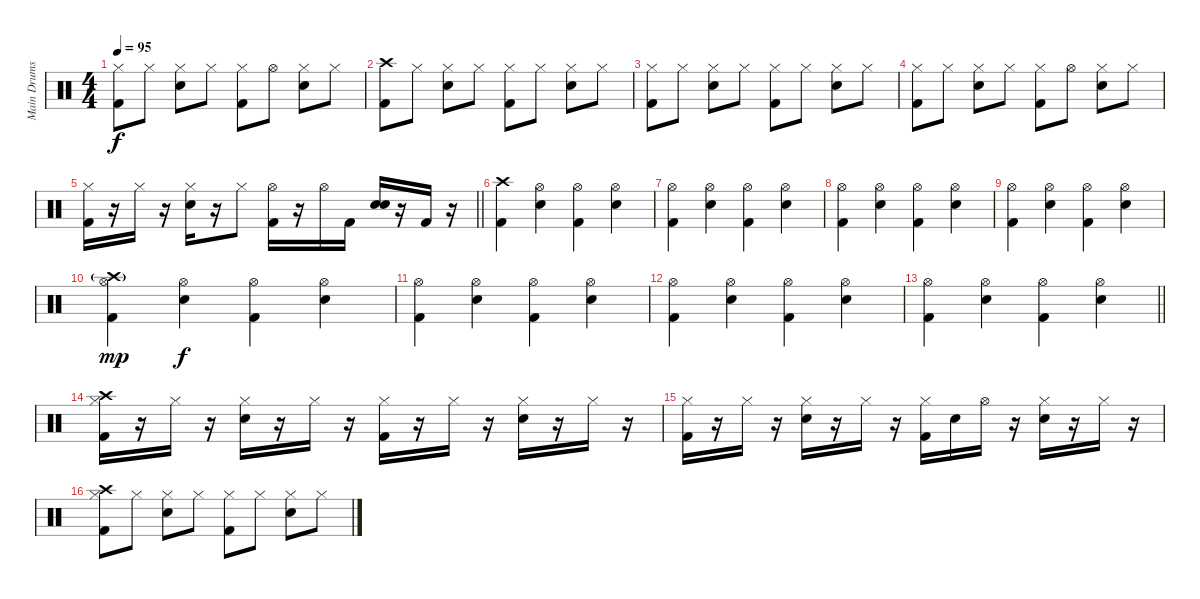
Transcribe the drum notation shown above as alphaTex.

\track ("Main Drums" "Main Drums") {instrument percussion}
\staff {score}
\articulation defaults
\ts (4 4)
\tempo 95
\clef neutral
\ks c
("Hi-Hat (closed)" "Kick (hit) 2").8{dy f} "Hi-Hat (closed)".8 ("Hi-Hat (closed)" "Electric Snare (hit)").8 "Hi-Hat (closed)".8 ("Hi-Hat (closed)" "Kick (hit) 2").8 "Hi-Hat (open)".8 ("Hi-Hat (closed)" "Electric Snare (hit)").8 "Hi-Hat (closed)".8 |
("Crash high (hit)" "Kick (hit) 2").8 "Hi-Hat (closed)".8 ("Hi-Hat (closed)" "Electric Snare (hit)").8 "Hi-Hat (closed)".8 ("Hi-Hat (closed)" "Kick (hit) 2").8 "Hi-Hat (closed)".8 ("Hi-Hat (closed)" "Electric Snare (hit)").8 "Hi-Hat (closed)".8 |
("Hi-Hat (closed)" "Kick (hit) 2").8 "Hi-Hat (closed)".8 ("Hi-Hat (closed)" "Electric Snare (hit)").8 "Hi-Hat (closed)".8 ("Hi-Hat (closed)" "Kick (hit) 2").8 "Hi-Hat (closed)".8 ("Hi-Hat (closed)" "Electric Snare (hit)").8 "Hi-Hat (closed)".8 |
("Hi-Hat (closed)" "Kick (hit) 2").8 "Hi-Hat (closed)".8 ("Hi-Hat (closed)" "Electric Snare (hit)").8 "Hi-Hat (closed)".8 ("Hi-Hat (closed)" "Kick (hit) 2").8 "Hi-Hat (open)".8 ("Hi-Hat (closed)" "Electric Snare (hit)").8 "Hi-Hat (closed)".8 |
\barLineRight lightlight
("Hi-Hat (closed)" "Kick (hit) 2").16 r.16 "Hi-Hat (closed)".16 r.16 ("Hi-Hat (closed)" "Electric Snare (hit)").16 r.16 "Hi-Hat (closed)".8 ("Hi-Hat (open)" "Kick (hit) 2").16 r.16 "Hi-Hat (open)".16 "Kick (hit) 2".16 ("Electric Snare (hit)" "Electric Snare (hit)").16{bu 120} r.16 "Kick (hit) 2".16 r.16 |
("Crash high (hit)" "Kick (hit) 2").4 ("Hi-Hat (open)" "Electric Snare (hit)").4 ("Hi-Hat (open)" "Kick (hit) 2").4 ("Hi-Hat (open)" "Electric Snare (hit)").4 |
("Hi-Hat (open)" "Kick (hit) 2").4 ("Hi-Hat (open)" "Electric Snare (hit)").4 ("Hi-Hat (open)" "Kick (hit) 2").4 ("Hi-Hat (open)" "Electric Snare (hit)").4 |
("Hi-Hat (open)" "Kick (hit) 2").4 ("Hi-Hat (open)" "Electric Snare (hit)").4 ("Hi-Hat (open)" "Kick (hit) 2").4 ("Hi-Hat (open)" "Electric Snare (hit)").4 |
("Hi-Hat (open)" "Kick (hit) 2").4 ("Hi-Hat (open)" "Electric Snare (hit)").4 ("Hi-Hat (open)" "Kick (hit) 2").4 ("Hi-Hat (open)" "Electric Snare (hit)").4 |
("Crash high (hit)"{g} "Hi-Hat (open)" "Kick (hit) 2").4{dy mp} ("Hi-Hat (open)" "Electric Snare (hit)").4{dy f} ("Hi-Hat (open)" "Kick (hit) 2").4 ("Hi-Hat (open)" "Electric Snare (hit)").4 |
("Hi-Hat (open)" "Kick (hit) 2").4 ("Hi-Hat (open)" "Electric Snare (hit)").4 ("Hi-Hat (open)" "Kick (hit) 2").4 ("Hi-Hat (open)" "Electric Snare (hit)").4 |
("Hi-Hat (open)" "Kick (hit) 2").4 ("Hi-Hat (open)" "Electric Snare (hit)").4 ("Hi-Hat (open)" "Kick (hit) 2").4 ("Hi-Hat (open)" "Electric Snare (hit)").4 |
\barLineRight lightlight
("Hi-Hat (open)" "Kick (hit) 2").4 ("Hi-Hat (open)" "Electric Snare (hit)").4 ("Hi-Hat (open)" "Kick (hit) 2").4 ("Hi-Hat (open)" "Electric Snare (hit)").4 |
("Crash high (hit)" "Hi-Hat (closed)" "Kick (hit) 2").16 r.16 "Hi-Hat (closed)".16 r.16 ("Hi-Hat (closed)" "Electric Snare (hit)").16 r.16 "Hi-Hat (closed)".16 r.16 ("Hi-Hat (closed)" "Kick (hit) 2").16 r.16 "Hi-Hat (closed)".16 r.16 ("Hi-Hat (closed)" "Electric Snare (hit)").16 r.16 "Hi-Hat (closed)".16 r.16 |
("Hi-Hat (closed)" "Kick (hit) 2").16 r.16 "Hi-Hat (closed)".16 r.16 ("Hi-Hat (closed)" "Electric Snare (hit)").16 r.16 "Hi-Hat (closed)".16 r.16 ("Hi-Hat (closed)" "Kick (hit) 2").16 "Electric Snare (hit)".16 "Hi-Hat (open)".16 r.16 ("Hi-Hat (closed)" "Electric Snare (hit)").16 r.16 "Hi-Hat (closed)".16 r.16 |
("Crash high (hit)" "Hi-Hat (closed)" "Kick (hit) 2").8 "Hi-Hat (closed)".8 ("Hi-Hat (closed)" "Electric Snare (hit)").8 "Hi-Hat (closed)".8 ("Hi-Hat (closed)" "Kick (hit) 2").8 "Hi-Hat (closed)".8 ("Hi-Hat (closed)" "Electric Snare (hit)").8 "Hi-Hat (closed)".8
